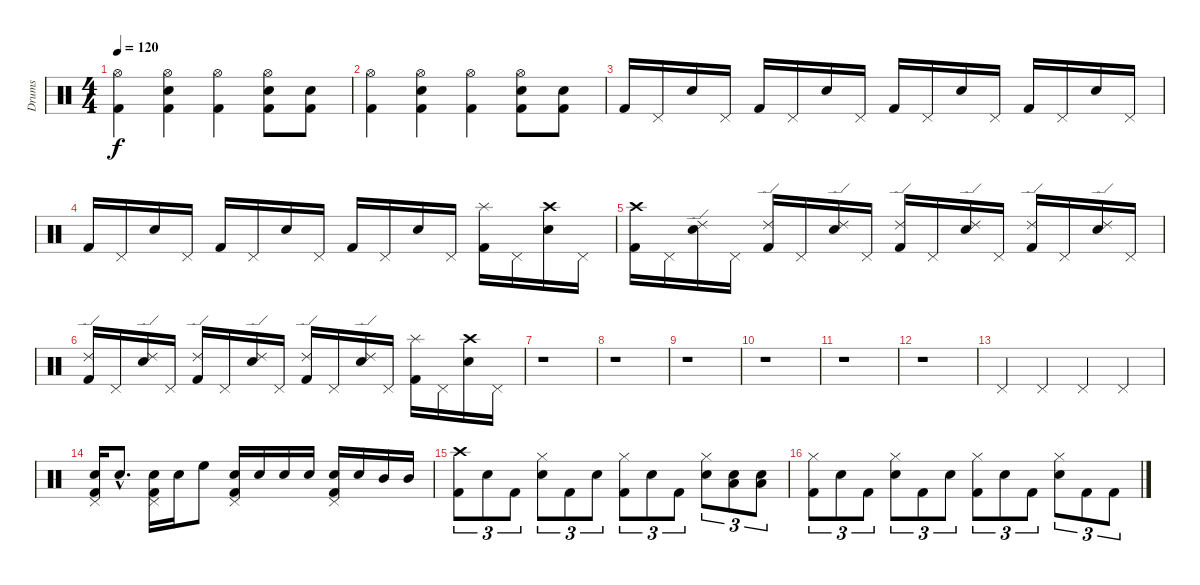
\track ("Drums" "Drums") {instrument percussion}
\staff {score}
\articulation defaults
\ts (4 4)
\tempo 120
\clef neutral
\ks c
("Hi-Hat (open)" "Kick (hit) 2").4{dy f} ("Hi-Hat (open)" "Electric Snare (hit)" "Kick (hit) 2").4 ("Hi-Hat (open)" "Kick (hit) 2").4 ("Hi-Hat (open)" "Electric Snare (hit)" "Kick (hit) 2").8 ("Electric Snare (hit)" "Kick (hit) 2").8 |
("Hi-Hat (open)" "Kick (hit) 2").4 ("Hi-Hat (open)" "Electric Snare (hit)" "Kick (hit) 2").4 ("Hi-Hat (open)" "Kick (hit) 2").4 ("Hi-Hat (open)" "Electric Snare (hit)" "Kick (hit) 2").8 ("Electric Snare (hit)" "Kick (hit) 2").8 |
"Kick (hit) 2".16 "Pedal Hi-Hat (hit)".16 "Electric Snare (hit)".16 "Pedal Hi-Hat (hit)".16 "Kick (hit) 2".16 "Pedal Hi-Hat (hit)".16 "Electric Snare (hit)".16 "Pedal Hi-Hat (hit)".16 "Kick (hit) 2".16 "Pedal Hi-Hat (hit)".16 "Electric Snare (hit)".16 "Pedal Hi-Hat (hit)".16 "Kick (hit) 2".16 "Pedal Hi-Hat (hit)".16 "Electric Snare (hit)".16 "Pedal Hi-Hat (hit)".16 |
"Kick (hit) 2".16 "Pedal Hi-Hat (hit)".16 "Electric Snare (hit)".16 "Pedal Hi-Hat (hit)".16 "Kick (hit) 2".16 "Pedal Hi-Hat (hit)".16 "Electric Snare (hit)".16 "Pedal Hi-Hat (hit)".16 "Kick (hit) 2".16 "Pedal Hi-Hat (hit)".16 "Electric Snare (hit)".16 "Pedal Hi-Hat (hit)".16 ("Splash (hit)" "Kick (hit) 2").16 "Pedal Hi-Hat (hit)".16 ("Crash high (hit)" "Electric Snare (hit)").16 "Pedal Hi-Hat (hit)".16 |
("Crash high (hit)" "Kick (hit) 2").16 "Pedal Hi-Hat (hit)".16 ("Ride (edge) 2" "Electric Snare (hit)").16 "Pedal Hi-Hat (hit)".16 ("Ride (edge) 2" "Kick (hit) 2").16 "Pedal Hi-Hat (hit)".16 ("Ride (edge) 2" "Electric Snare (hit)").16 "Pedal Hi-Hat (hit)".16 ("Ride (edge) 2" "Kick (hit) 2").16 "Pedal Hi-Hat (hit)".16 ("Ride (edge) 2" "Electric Snare (hit)").16 "Pedal Hi-Hat (hit)".16 ("Ride (edge) 2" "Kick (hit) 2").16 "Pedal Hi-Hat (hit)".16 ("Ride (edge) 2" "Electric Snare (hit)").16 "Pedal Hi-Hat (hit)".16 |
("Ride (edge) 2" "Kick (hit) 2").16 "Pedal Hi-Hat (hit)".16 ("Ride (edge) 2" "Electric Snare (hit)").16 "Pedal Hi-Hat (hit)".16 ("Ride (edge) 2" "Kick (hit) 2").16 "Pedal Hi-Hat (hit)".16 ("Ride (edge) 2" "Electric Snare (hit)").16 "Pedal Hi-Hat (hit)".16 ("Ride (edge) 2" "Kick (hit) 2").16 "Pedal Hi-Hat (hit)".16 ("Ride (edge) 2" "Electric Snare (hit)").16 "Pedal Hi-Hat (hit)".16 ("Splash (hit)" "Kick (hit) 2").16 "Pedal Hi-Hat (hit)".16 ("Crash high (hit)" "Electric Snare (hit)").16 "Pedal Hi-Hat (hit)".16 |
r.1 |
r.1 |
r.1 |
r.1 |
r.1 |
r.1 |
"Pedal Hi-Hat (hit)".4 "Pedal Hi-Hat (hit)".4 "Pedal Hi-Hat (hit)".4 "Pedal Hi-Hat (hit)".4 |
("Pedal Hi-Hat (hit)" "Snare (hit) 2" "Kick (hit) 2").16 "Snare (hit) 2"{hac}.8{d} ("Pedal Hi-Hat (hit)" "Snare (hit) 2" "Kick (hit) 2").16 "Snare (hit) 2".16 "High Floor Tom (hit)".8 ("Pedal Hi-Hat (hit)" "Snare (hit) 2" "Kick (hit) 2").16 "Snare (hit) 2".16 "Snare (hit) 2".16 "Snare (hit) 2".16 ("Pedal Hi-Hat (hit)" "Snare (hit) 2" "Kick (hit) 2").16 "Snare (hit) 2".16 "Mid Tom (hit)".16 "Mid Tom (hit)".16 |
("Crash high (hit)" "Kick (hit) 2").8{tu (3 2)} "Electric Snare (hit)".8{tu (3 2)} "Kick (hit) 2".8{tu (3 2)} ("Hi-Hat (closed)" "Electric Snare (hit)").8{tu (3 2)} "Kick (hit) 2".8{tu (3 2)} "Electric Snare (hit)".8{tu (3 2)} ("Hi-Hat (closed)" "Kick (hit) 2").8{tu (3 2)} "Electric Snare (hit)".8{tu (3 2)} "Kick (hit) 2".8{tu (3 2)} ("Hi-Hat (closed)" "Electric Snare (hit)").8{tu (3 2)} ("Electric Snare (hit)" "Low Tom (hit)").8{tu (3 2)} ("Electric Snare (hit)" "Low Tom (hit)").8{tu (3 2)} |
("Hi-Hat (closed)" "Kick (hit) 2").8{tu (3 2)} "Electric Snare (hit)".8{tu (3 2)} "Kick (hit) 2".8{tu (3 2)} ("Hi-Hat (closed)" "Electric Snare (hit)").8{tu (3 2)} "Kick (hit) 2".8{tu (3 2)} "Electric Snare (hit)".8{tu (3 2)} ("Hi-Hat (closed)" "Kick (hit) 2").8{tu (3 2)} "Electric Snare (hit)".8{tu (3 2)} "Kick (hit) 2".8{tu (3 2)} ("Hi-Hat (closed)" "Electric Snare (hit)").8{tu (3 2)} "Kick (hit) 2".8{tu (3 2)} "Kick (hit) 2".8{tu (3 2)}
